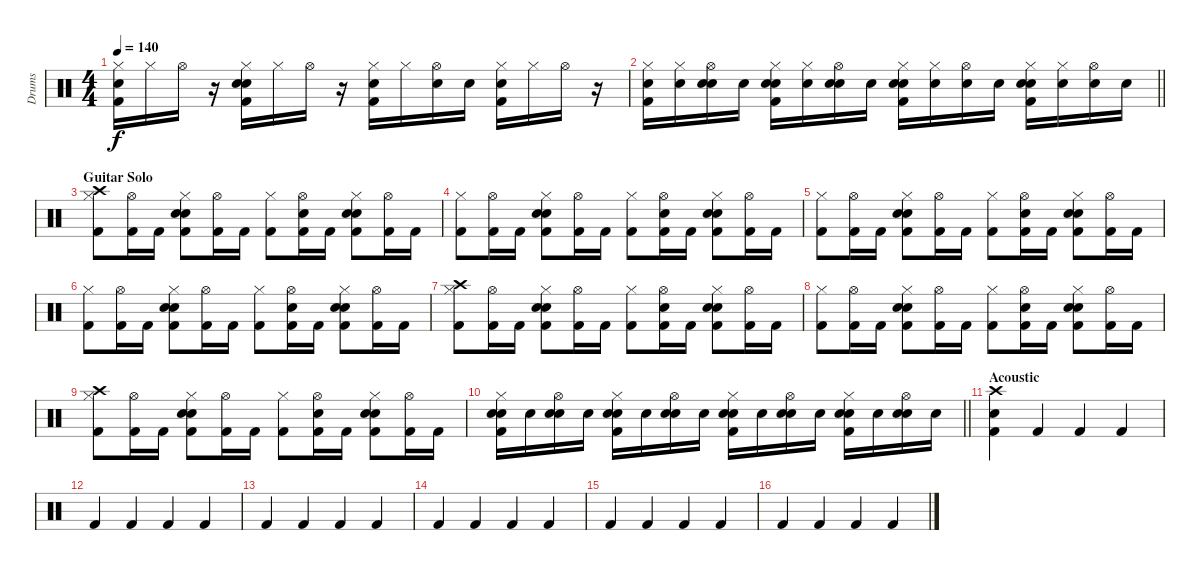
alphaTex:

\track ("Drums" "Drums") {instrument percussion}
\staff {score}
\articulation defaults
\ts (4 4)
\tempo 140
\clef neutral
\ks c
("Hi-Hat (closed)" "Hand Clap (hit)" "Kick (hit) 2").16{dy f} "Hi-Hat (closed)".16 "Hi-Hat (open)".16 r.16 ("Hi-Hat (closed)" "Hand Clap (hit)" "Snare (hit) 2" "Kick (hit) 2").16 "Hi-Hat (closed)".16 "Hi-Hat (open)".16 r.16 ("Hi-Hat (closed)" "Hand Clap (hit)" "Kick (hit) 2").16 "Hi-Hat (closed)".16 ("Hi-Hat (open)" "Hand Clap (hit)").16 "Hand Clap (hit)".16 ("Hi-Hat (closed)" "Snare (hit) 2" "Kick (hit) 2").16 "Hi-Hat (closed)".16 "Hi-Hat (open)".16 r.16 |
\barLineRight lightlight
("Hi-Hat (closed)" "Snare (hit) 2" "Kick (hit) 2").16 ("Hi-Hat (closed)" "Snare (hit) 2").16 ("Hi-Hat (open)" "Hand Clap (hit)" "Snare (hit) 2").16 "Snare (hit) 2".16 ("Hi-Hat (closed)" "Hand Clap (hit)" "Snare (hit) 2" "Kick (hit) 2").16 ("Hi-Hat (closed)" "Snare (hit) 2").16 ("Hi-Hat (open)" "Hand Clap (hit)" "Snare (hit) 2").16 "Snare (hit) 2".16 ("Hi-Hat (closed)" "Hand Clap (hit)" "Snare (hit) 2" "Kick (hit) 2").16 ("Hi-Hat (closed)" "Snare (hit) 2").16 ("Hi-Hat (open)" "Snare (hit) 2").16 "Snare (hit) 2".16 ("Hi-Hat (closed)" "Hand Clap (hit)" "Snare (hit) 2" "Kick (hit) 2").16 ("Hi-Hat (closed)" "Snare (hit) 2").16 ("Hi-Hat (open)" "Snare (hit) 2").16 "Snare (hit) 2".16 |
\section ("" "Guitar Solo")
("Crash high (hit)" "Hi-Hat (closed)" "Kick (hit) 2").8 ("Hi-Hat (open)" "Kick (hit) 2").16 "Kick (hit) 2".16 ("Hi-Hat (closed)" "Hand Clap (hit)" "Snare (hit) 2" "Kick (hit) 2").8 ("Hi-Hat (open)" "Kick (hit) 2").16 "Kick (hit) 2".16 ("Hi-Hat (closed)" "Kick (hit) 2").8 ("Hi-Hat (open)" "Hand Clap (hit)" "Kick (hit) 2").16 "Kick (hit) 2".16 ("Hi-Hat (closed)" "Hand Clap (hit)" "Snare (hit) 2" "Kick (hit) 2").8 ("Hi-Hat (open)" "Kick (hit) 2").16 "Kick (hit) 2".16 |
("Hi-Hat (closed)" "Kick (hit) 2").8 ("Hi-Hat (open)" "Kick (hit) 2").16 "Kick (hit) 2".16 ("Hi-Hat (closed)" "Hand Clap (hit)" "Snare (hit) 2" "Kick (hit) 2").8 ("Hi-Hat (open)" "Kick (hit) 2").16 "Kick (hit) 2".16 ("Hi-Hat (closed)" "Kick (hit) 2").8 ("Hi-Hat (open)" "Hand Clap (hit)" "Kick (hit) 2").16 "Kick (hit) 2".16 ("Hi-Hat (closed)" "Hand Clap (hit)" "Snare (hit) 2" "Kick (hit) 2").8 ("Hi-Hat (open)" "Kick (hit) 2").16 "Kick (hit) 2".16 |
("Hi-Hat (closed)" "Kick (hit) 2").8 ("Hi-Hat (open)" "Kick (hit) 2").16 "Kick (hit) 2".16 ("Hi-Hat (closed)" "Hand Clap (hit)" "Snare (hit) 2" "Kick (hit) 2").8 ("Hi-Hat (open)" "Kick (hit) 2").16 "Kick (hit) 2".16 ("Hi-Hat (closed)" "Kick (hit) 2").8 ("Hi-Hat (open)" "Hand Clap (hit)" "Kick (hit) 2").16 "Kick (hit) 2".16 ("Hi-Hat (closed)" "Hand Clap (hit)" "Snare (hit) 2" "Kick (hit) 2").8 ("Hi-Hat (open)" "Kick (hit) 2").16 "Kick (hit) 2".16 |
("Hi-Hat (closed)" "Kick (hit) 2").8 ("Hi-Hat (open)" "Kick (hit) 2").16 "Kick (hit) 2".16 ("Hi-Hat (closed)" "Hand Clap (hit)" "Snare (hit) 2" "Kick (hit) 2").8 ("Hi-Hat (open)" "Kick (hit) 2").16 "Kick (hit) 2".16 ("Hi-Hat (closed)" "Kick (hit) 2").8 ("Hi-Hat (open)" "Hand Clap (hit)" "Kick (hit) 2").16 "Kick (hit) 2".16 ("Hi-Hat (closed)" "Hand Clap (hit)" "Snare (hit) 2" "Kick (hit) 2").8 ("Hi-Hat (open)" "Kick (hit) 2").16 "Kick (hit) 2".16 |
("Crash high (hit)" "Hi-Hat (closed)" "Kick (hit) 2").8 ("Hi-Hat (open)" "Kick (hit) 2").16 "Kick (hit) 2".16 ("Hi-Hat (closed)" "Hand Clap (hit)" "Snare (hit) 2" "Kick (hit) 2").8 ("Hi-Hat (open)" "Kick (hit) 2").16 "Kick (hit) 2".16 ("Hi-Hat (closed)" "Kick (hit) 2").8 ("Hi-Hat (open)" "Hand Clap (hit)" "Kick (hit) 2").16 "Kick (hit) 2".16 ("Hi-Hat (closed)" "Hand Clap (hit)" "Snare (hit) 2" "Kick (hit) 2").8 ("Hi-Hat (open)" "Kick (hit) 2").16 "Kick (hit) 2".16 |
("Hi-Hat (closed)" "Kick (hit) 2").8 ("Hi-Hat (open)" "Kick (hit) 2").16 "Kick (hit) 2".16 ("Hi-Hat (closed)" "Hand Clap (hit)" "Snare (hit) 2" "Kick (hit) 2").8 ("Hi-Hat (open)" "Kick (hit) 2").16 "Kick (hit) 2".16 ("Hi-Hat (closed)" "Kick (hit) 2").8 ("Hi-Hat (open)" "Hand Clap (hit)" "Kick (hit) 2").16 "Kick (hit) 2".16 ("Hi-Hat (closed)" "Hand Clap (hit)" "Snare (hit) 2" "Kick (hit) 2").8 ("Hi-Hat (open)" "Kick (hit) 2").16 "Kick (hit) 2".16 |
("Crash high (hit)" "Hi-Hat (closed)" "Kick (hit) 2").8 ("Hi-Hat (open)" "Kick (hit) 2").16 "Kick (hit) 2".16 ("Hi-Hat (closed)" "Hand Clap (hit)" "Snare (hit) 2" "Kick (hit) 2").8 ("Hi-Hat (open)" "Kick (hit) 2").16 "Kick (hit) 2".16 ("Hi-Hat (closed)" "Kick (hit) 2").8 ("Hi-Hat (open)" "Hand Clap (hit)" "Kick (hit) 2").16 "Kick (hit) 2".16 ("Hi-Hat (closed)" "Hand Clap (hit)" "Snare (hit) 2" "Kick (hit) 2").8 ("Hi-Hat (open)" "Kick (hit) 2").16 "Kick (hit) 2".16 |
\barLineRight lightlight
("Hi-Hat (closed)" "Hand Clap (hit)" "Snare (hit) 2" "Kick (hit) 2").16 "Snare (hit) 2".16 ("Hi-Hat (open)" "Hand Clap (hit)" "Snare (hit) 2").16 "Snare (hit) 2".16 ("Hi-Hat (closed)" "Hand Clap (hit)" "Snare (hit) 2" "Kick (hit) 2").16 "Snare (hit) 2".16 ("Hi-Hat (open)" "Hand Clap (hit)" "Snare (hit) 2").16 "Snare (hit) 2".16 ("Hi-Hat (closed)" "Hand Clap (hit)" "Snare (hit) 2" "Kick (hit) 2").16 "Snare (hit) 2".16 ("Hi-Hat (open)" "Hand Clap (hit)" "Snare (hit) 2").16 "Snare (hit) 2".16 ("Hi-Hat (closed)" "Hand Clap (hit)" "Snare (hit) 2" "Kick (hit) 2").16 "Snare (hit) 2".16 ("Hi-Hat (open)" "Hand Clap (hit)" "Snare (hit) 2").16 "Snare (hit) 2".16 |
\section ("" "Acoustic")
("Crash high (hit)" "Hand Clap (hit)" "Kick (hit) 2").4 "Kick (hit) 2".4 "Kick (hit) 2".4 "Kick (hit) 2".4 |
"Kick (hit) 2".4 "Kick (hit) 2".4 "Kick (hit) 2".4 "Kick (hit) 2".4 |
"Kick (hit) 2".4 "Kick (hit) 2".4 "Kick (hit) 2".4 "Kick (hit) 2".4 |
"Kick (hit) 2".4 "Kick (hit) 2".4 "Kick (hit) 2".4 "Kick (hit) 2".4 |
"Kick (hit) 2".4 "Kick (hit) 2".4 "Kick (hit) 2".4 "Kick (hit) 2".4 |
"Kick (hit) 2".4 "Kick (hit) 2".4 "Kick (hit) 2".4 "Kick (hit) 2".4
